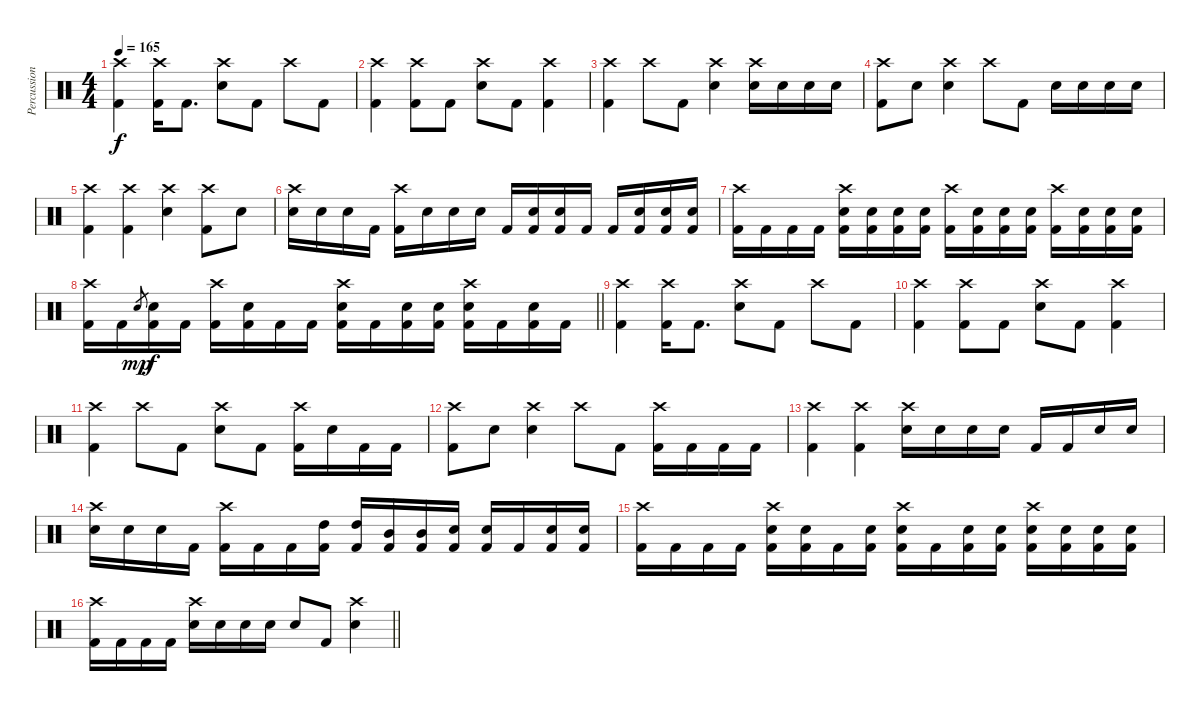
\track ("Percussion" "Percussion") {instrument percussion}
\staff {score}
\articulation defaults
\ts (4 4)
\tempo 165
\clef neutral
\ks c
("Crash high (hit)" "Kick (hit) 2").4{dy f} ("Crash high (hit)" "Kick (hit) 2").16 "Kick (hit) 2".8{d} ("Crash high (hit)" "Electric Snare (hit)").8 "Kick (hit) 2".8 "Crash high (hit)".8 "Kick (hit) 2".8 |
("Crash high (hit)" "Kick (hit) 2").4 ("Crash high (hit)" "Kick (hit) 2").8 "Kick (hit) 2".8 ("Crash high (hit)" "Electric Snare (hit)").8 "Kick (hit) 2".8 ("Crash high (hit)" "Kick (hit) 2").4 |
("Crash high (hit)" "Kick (hit) 2").4 "Crash high (hit)".8 "Kick (hit) 2".8 ("Crash high (hit)" "Electric Snare (hit)").4 ("Crash high (hit)" "Electric Snare (hit)").16 "Electric Snare (hit)".16 "Electric Snare (hit)".16 "Electric Snare (hit)".16 |
("Crash high (hit)" "Kick (hit) 2").8 "Electric Snare (hit)".8 ("Crash high (hit)" "Electric Snare (hit)").4 "Crash high (hit)".8 "Kick (hit) 2".8 "Electric Snare (hit)".16 "Electric Snare (hit)".16 "Electric Snare (hit)".16 "Electric Snare (hit)".16 |
("Crash high (hit)" "Kick (hit) 2").4 ("Crash high (hit)" "Kick (hit) 2").4 ("Crash high (hit)" "Electric Snare (hit)").4 ("Crash high (hit)" "Kick (hit) 2").8 "Electric Snare (hit)".8 |
("Crash high (hit)" "Electric Snare (hit)").16 "Electric Snare (hit)".16 "Electric Snare (hit)".16 "Kick (hit) 2".16 ("Crash high (hit)" "Kick (hit) 2").16 "Electric Snare (hit)".16 "Electric Snare (hit)".16 "Electric Snare (hit)".16 "Kick (hit) 2".16 ("Electric Snare (hit)" "Kick (hit) 2").16 ("Electric Snare (hit)" "Kick (hit) 2").16 "Kick (hit) 2".16 "Kick (hit) 2".16 ("Electric Snare (hit)" "Kick (hit) 2").16 ("Electric Snare (hit)" "Kick (hit) 2").16 ("Electric Snare (hit)" "Kick (hit) 2").16 |
("Crash high (hit)" "Kick (hit) 2").16 "Kick (hit) 2".16 "Kick (hit) 2".16 "Kick (hit) 2".16 ("Crash high (hit)" "Electric Snare (hit)" "Kick (hit) 2").16 ("Electric Snare (hit)" "Kick (hit) 2").16 ("Electric Snare (hit)" "Kick (hit) 2").16 ("Electric Snare (hit)" "Kick (hit) 2").16 ("Crash high (hit)" "Kick (hit) 2").16 ("Electric Snare (hit)" "Kick (hit) 2").16 ("Electric Snare (hit)" "Kick (hit) 2").16 ("Electric Snare (hit)" "Kick (hit) 2").16 ("Crash high (hit)" "Kick (hit) 2").16 ("Electric Snare (hit)" "Kick (hit) 2").16 ("Electric Snare (hit)" "Kick (hit) 2").16 ("Electric Snare (hit)" "Kick (hit) 2").16 |
\barLineRight lightlight
("Crash high (hit)" "Kick (hit) 2").16 "Kick (hit) 2".16 "Electric Snare (hit)".8{gr dy mp} ("Electric Snare (hit)" "Kick (hit) 2").16{dy f} "Kick (hit) 2".16 ("Crash high (hit)" "Kick (hit) 2").16 ("Electric Snare (hit)" "Kick (hit) 2").16 "Kick (hit) 2".16 "Kick (hit) 2".16 ("Crash high (hit)" "Electric Snare (hit)" "Kick (hit) 2").16 "Kick (hit) 2".16 ("Electric Snare (hit)" "Kick (hit) 2").16 ("Electric Snare (hit)" "Kick (hit) 2").16 ("Crash high (hit)" "Electric Snare (hit)" "Kick (hit) 2").16 "Kick (hit) 2".16 ("Electric Snare (hit)" "Kick (hit) 2").16 "Kick (hit) 2".16 |
("Crash high (hit)" "Kick (hit) 2").4 ("Crash high (hit)" "Kick (hit) 2").16 "Kick (hit) 2".8{d} ("Crash high (hit)" "Electric Snare (hit)").8 "Kick (hit) 2".8 "Crash high (hit)".8 "Kick (hit) 2".8 |
("Crash high (hit)" "Kick (hit) 2").4 ("Crash high (hit)" "Kick (hit) 2").8 "Kick (hit) 2".8 ("Crash high (hit)" "Electric Snare (hit)").8 "Kick (hit) 2".8 ("Crash high (hit)" "Kick (hit) 2").4 |
("Crash high (hit)" "Kick (hit) 2").4 "Crash high (hit)".8 "Kick (hit) 2".8 ("Crash high (hit)" "Electric Snare (hit)").8 "Kick (hit) 2".8 ("Crash high (hit)" "Kick (hit) 2").16 "Electric Snare (hit)".16 "Kick (hit) 2".16 "Kick (hit) 2".16 |
("Crash high (hit)" "Kick (hit) 2").8 "Electric Snare (hit)".8 ("Crash high (hit)" "Electric Snare (hit)").4 "Crash high (hit)".8 "Kick (hit) 2".8 ("Crash high (hit)" "Kick (hit) 2").16 "Kick (hit) 2".16 "Kick (hit) 2".16 "Kick (hit) 2".16 |
("Crash high (hit)" "Kick (hit) 2").4 ("Crash high (hit)" "Kick (hit) 2").4 ("Crash high (hit)" "Electric Snare (hit)").16 "Electric Snare (hit)".16 "Electric Snare (hit)".16 "Electric Snare (hit)".16 "Kick (hit) 2".16 "Kick (hit) 2".16 "Electric Snare (hit)".16 "Electric Snare (hit)".16 |
("Crash high (hit)" "Electric Snare (hit)").16 "Electric Snare (hit)".16 "Electric Snare (hit)".16 "Kick (hit) 2".16 ("Crash high (hit)" "Kick (hit) 2").16 "Kick (hit) 2".16 "Kick (hit) 2".16 ("High Tom (hit)" "Kick (hit) 2").16 ("High Tom (hit)" "Kick (hit) 2").16 ("Mid Tom (hit)" "Kick (hit) 2").16 ("Mid Tom (hit)" "Kick (hit) 2").16 ("Electric Snare (hit)" "Kick (hit) 2").16 ("Electric Snare (hit)" "Kick (hit) 2").16 "Kick (hit) 2".16 ("Electric Snare (hit)" "Kick (hit) 2").16 ("Electric Snare (hit)" "Kick (hit) 2").16 |
("Crash high (hit)" "Kick (hit) 2").16 "Kick (hit) 2".16 "Kick (hit) 2".16 "Kick (hit) 2".16 ("Crash high (hit)" "Electric Snare (hit)" "Kick (hit) 2").16 ("Electric Snare (hit)" "Kick (hit) 2").16 "Kick (hit) 2".16 ("Electric Snare (hit)" "Kick (hit) 2").16 ("Crash high (hit)" "Electric Snare (hit)" "Kick (hit) 2").16 "Kick (hit) 2".16 ("Electric Snare (hit)" "Kick (hit) 2").16 ("Electric Snare (hit)" "Kick (hit) 2").16 ("Crash high (hit)" "Electric Snare (hit)" "Kick (hit) 2").16 ("Electric Snare (hit)" "Kick (hit) 2").16 ("Electric Snare (hit)" "Kick (hit) 2").16 ("Electric Snare (hit)" "Kick (hit) 2").16 |
\barLineRight lightlight
("Crash high (hit)" "Kick (hit) 2").16 "Kick (hit) 2".16 "Kick (hit) 2".16 "Kick (hit) 2".16 ("Crash high (hit)" "Electric Snare (hit)").16 "Electric Snare (hit)".16 "Electric Snare (hit)".16 "Electric Snare (hit)".16 "Electric Snare (hit)".8 "Kick (hit) 2".8 ("Crash high (hit)" "Electric Snare (hit)").4
